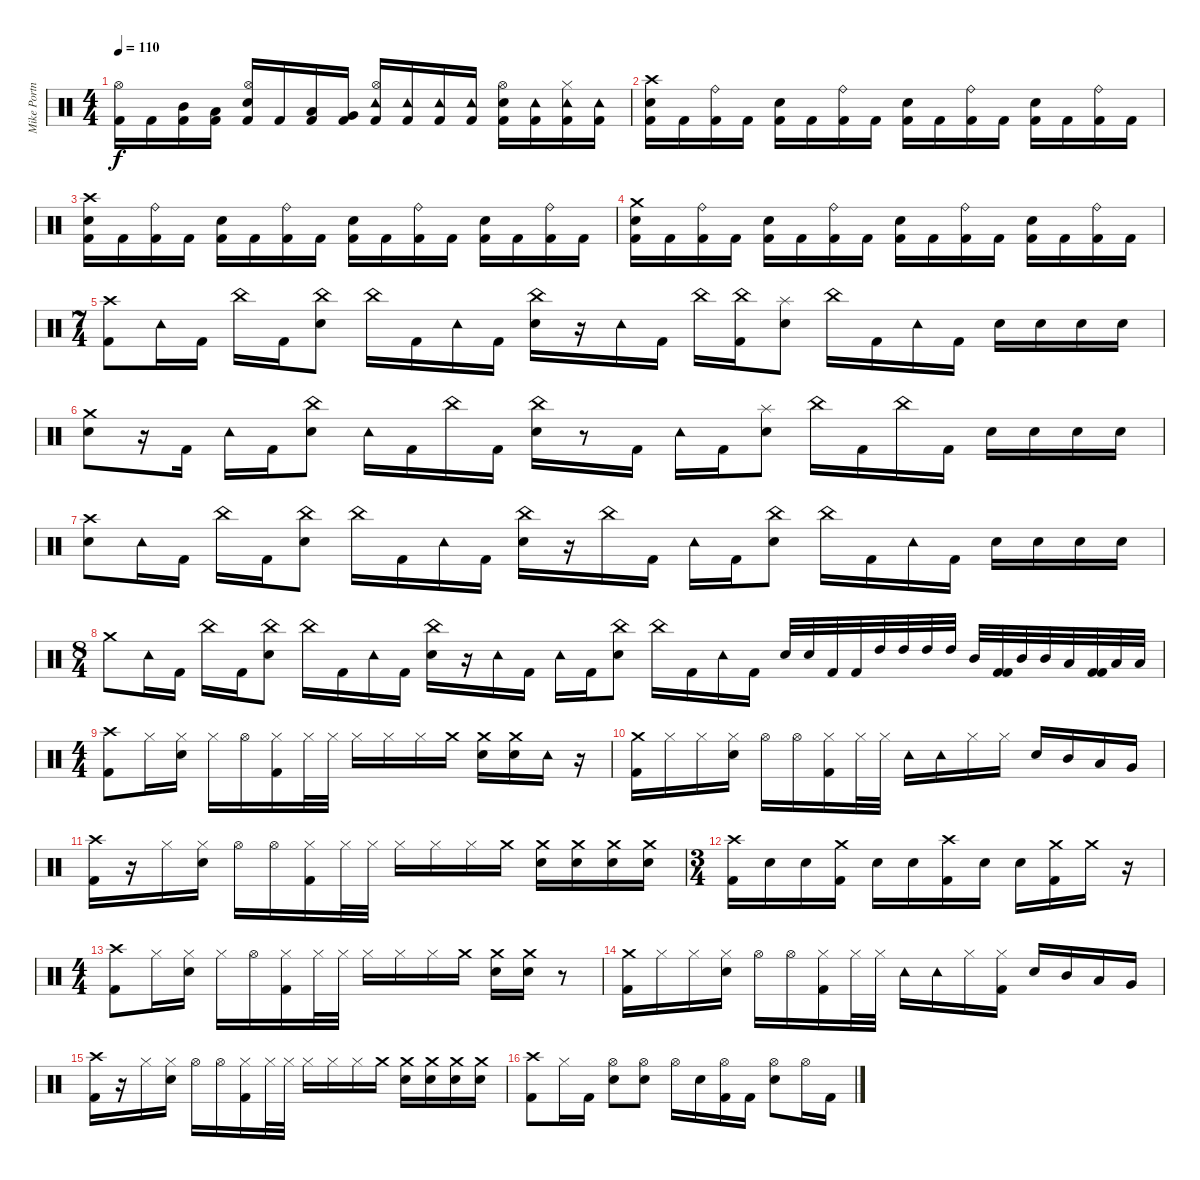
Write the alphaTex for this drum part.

\track ("Mike Portnoy - Drums" "Mike Portn") {instrument percussion}
\staff {score}
\articulation defaults
\ts (4 4)
\tempo 110
\clef neutral
\ks c
("Kick (hit) 2" "Hi-Hat (open)").16{dy f} "Kick (hit) 2".16 ("Kick (hit) 2" "Mid Tom (hit)").16 ("Kick (hit) 2" "Low Tom (hit)").16 ("Kick (hit) 2" "Electric Snare (hit)" "Hi-Hat (open)").16 "Kick (hit) 2".16 ("Kick (hit) 2" "Low Tom (hit)").16 ("Kick (hit) 2" "Very Low Tom (hit)").16 ("Kick (hit) 2" "Hi-Hat (open)" "Tambourine (hit)").16 ("Kick (hit) 2" "Tambourine (hit)").16 ("Kick (hit) 2" "Tambourine (hit)").16 ("Kick (hit) 2" "Tambourine (hit)").16 ("Kick (hit) 2" "Hi-Hat (open)" "Electric Snare (hit)").16 ("Kick (hit) 2" "Tambourine (hit)").16 ("Kick (hit) 2" "Hi-Hat (closed)" "Tambourine (hit)").16 ("Kick (hit) 2" "Tambourine (hit)").16 |
("Kick (hit) 2" "Electric Snare (hit)" "Crash high (hit)").16 "Kick (hit) 2".16 ("Kick (hit) 2" "Ride (bell)").16 "Kick (hit) 2".16 ("Kick (hit) 2" "Electric Snare (hit)").16 "Kick (hit) 2".16 ("Kick (hit) 2" "Ride (bell)").16 "Kick (hit) 2".16 ("Kick (hit) 2" "Electric Snare (hit)").16 "Kick (hit) 2".16 ("Kick (hit) 2" "Ride (bell)").16 "Kick (hit) 2".16 ("Kick (hit) 2" "Electric Snare (hit)").16 "Kick (hit) 2".16 ("Kick (hit) 2" "Ride (bell)").16 "Kick (hit) 2".16 |
("Crash high (hit)" "Electric Snare (hit)" "Kick (hit) 2").16 "Kick (hit) 2".16 ("Kick (hit) 2" "Ride (bell)").16 "Kick (hit) 2".16 ("Kick (hit) 2" "Electric Snare (hit)").16 "Kick (hit) 2".16 ("Kick (hit) 2" "Ride (bell)").16 "Kick (hit) 2".16 ("Kick (hit) 2" "Electric Snare (hit)").16 "Kick (hit) 2".16 ("Kick (hit) 2" "Ride (bell)").16 "Kick (hit) 2".16 ("Kick (hit) 2" "Electric Snare (hit)").16 "Kick (hit) 2".16 ("Kick (hit) 2" "Ride (bell)").16 "Kick (hit) 2".16 |
("Kick (hit) 2" "Electric Snare (hit)" "Crash medium (hit)").16 "Kick (hit) 2".16 ("Kick (hit) 2" "Ride (bell)").16 "Kick (hit) 2".16 ("Kick (hit) 2" "Electric Snare (hit)").16 "Kick (hit) 2".16 ("Kick (hit) 2" "Ride (bell)").16 "Kick (hit) 2".16 ("Kick (hit) 2" "Electric Snare (hit)").16 "Kick (hit) 2".16 ("Kick (hit) 2" "Ride (bell)").16 "Kick (hit) 2".16 ("Kick (hit) 2" "Electric Snare (hit)").16 "Kick (hit) 2".16 ("Kick (hit) 2" "Ride (bell)").16 "Kick (hit) 2".16 |
\ts (7 4)
("Crash high (hit)" "Kick (hit) 2").8 "Tambourine (hit)".16 "Kick (hit) 2".16 "China (hit)".16 "Kick (hit) 2".16 ("Electric Snare (hit)" "China (hit)").8 "China (hit)".16 "Kick (hit) 2".16 "Tambourine (hit)".16 "Kick (hit) 2".16 ("Electric Snare (hit)" "China (hit)").16 r.16 "Tambourine (hit)".16 "Kick (hit) 2".16 "China (hit)".16 ("Kick (hit) 2" "China (hit)").16 ("Electric Snare (hit)" "Splash (hit)").8 "China (hit)".16 "Kick (hit) 2".16 "Tambourine (hit)".16 "Kick (hit) 2".16 "Electric Snare (hit)".16 "Electric Snare (hit)".16 "Electric Snare (hit)".16 "Electric Snare (hit)".16 |
("Electric Snare (hit)" "Crash medium (hit)").8 r.16 "Kick (hit) 2".16 "Tambourine (hit)".16 "Kick (hit) 2".16 ("Electric Snare (hit)" "China (hit)").8 "Tambourine (hit)".16 "Kick (hit) 2".16 "China (hit)".16 "Kick (hit) 2".16 ("Electric Snare (hit)" "China (hit)").16 r.8 "Kick (hit) 2".16 "Tambourine (hit)".16 "Kick (hit) 2".16 ("Electric Snare (hit)" "Splash (hit)").8 "China (hit)".16 "Kick (hit) 2".16 "China (hit)".16 "Kick (hit) 2".16 "Electric Snare (hit)".16 "Electric Snare (hit)".16 "Electric Snare (hit)".16 "Electric Snare (hit)".16 |
("Crash high (hit)" "Electric Snare (hit)").8 "Tambourine (hit)".16 "Kick (hit) 2".16 "China (hit)".16 "Kick (hit) 2".16 ("Electric Snare (hit)" "China (hit)").8 "China (hit)".16 "Kick (hit) 2".16 "Tambourine (hit)".16 "Kick (hit) 2".16 ("Electric Snare (hit)" "China (hit)").16 r.16 "China (hit)".16 "Kick (hit) 2".16 "Tambourine (hit)".16 "Kick (hit) 2".16 ("Electric Snare (hit)" "China (hit)").8 "China (hit)".16 "Kick (hit) 2".16 "Tambourine (hit)".16 "Kick (hit) 2".16 "Electric Snare (hit)".16 "Electric Snare (hit)".16 "Electric Snare (hit)".16 "Electric Snare (hit)".16 |
\ts (8 4)
"Crash medium (hit)".8 "Tambourine (hit)".16 "Kick (hit) 2".16 "China (hit)".16 "Kick (hit) 2".16 ("Electric Snare (hit)" "China (hit)").8 "China (hit)".16 "Kick (hit) 2".16 "Tambourine (hit)".16 "Kick (hit) 2".16 ("Electric Snare (hit)" "China (hit)").16 r.16 "Tambourine (hit)".16 "Kick (hit) 2".16 "Tambourine (hit)".16 "Kick (hit) 2".16 ("China (hit)" "Electric Snare (hit)").8 "China (hit)".16 "Kick (hit) 2".16 "Tambourine (hit)".16 "Kick (hit) 2".16 "Electric Snare (hit)".32 "Electric Snare (hit)".32 "Kick (hit) 2".32 "Kick (hit) 2".32 "High Tom (hit)".32 "High Tom (hit)".32 "High Tom (hit)".32 "High Tom (hit)".32 "Mid Tom (hit)".32 ("Kick (hit) 2" "Kick (hit) 2").32 "Mid Tom (hit)".32 "Mid Tom (hit)".32 "Low Tom (hit)".32 ("Kick (hit) 2" "Kick (hit) 2").32 "Low Tom (hit)".32 "Low Tom (hit)".32 |
\ts (4 4)
("Crash high (hit)" "Kick (hit) 2").8 "Hi-Hat (closed)".16 ("Electric Snare (hit)" "Hi-Hat (closed)").16 "Hi-Hat (closed)".16 "Hi-Hat (open)".16 ("Kick (hit) 2" "Hi-Hat (closed)").16 "Hi-Hat (closed)".32 "Hi-Hat (closed)".32 "Hi-Hat (closed)".16 "Hi-Hat (closed)".16 "Hi-Hat (closed)".16 "Crash medium (hit)".16 ("Electric Snare (hit)" "Crash medium (hit)").16 ("Electric Snare (hit)" "Crash medium (hit)").16 "Tambourine (hit)".16 r.16 |
("Kick (hit) 2" "Crash medium (hit)").16 "Hi-Hat (closed)".16 "Hi-Hat (closed)".16 ("Electric Snare (hit)" "Hi-Hat (closed)").16 "Hi-Hat (open)".16 "Hi-Hat (open)".16 ("Kick (hit) 2" "Hi-Hat (closed)").16 "Hi-Hat (closed)".32 "Hi-Hat (closed)".32 "Tambourine (hit)".16 "Tambourine (hit)".16 "Hi-Hat (closed)".16 "Hi-Hat (closed)".16 "Electric Snare (hit)".16 "Mid Tom (hit)".16 "Low Tom (hit)".16 "Very Low Tom (hit)".16 |
("Kick (hit) 2" "Crash high (hit)").16 r.16 "Hi-Hat (closed)".16 ("Electric Snare (hit)" "Hi-Hat (closed)").16 "Hi-Hat (open)".16 "Hi-Hat (open)".16 ("Kick (hit) 2" "Hi-Hat (closed)").16 "Hi-Hat (closed)".32 "Hi-Hat (closed)".32 "Hi-Hat (closed)".16 "Hi-Hat (closed)".16 "Hi-Hat (closed)".16 "Crash medium (hit)".16 ("Electric Snare (hit)" "Crash medium (hit)").16 ("Electric Snare (hit)" "Crash medium (hit)").16 ("Crash medium (hit)" "Electric Snare (hit)").16 ("Electric Snare (hit)" "Crash medium (hit)").16 |
\ts (3 4)
("Kick (hit) 2" "Crash high (hit)").16 "Electric Snare (hit)".16 "Electric Snare (hit)".16 ("Kick (hit) 2" "Crash medium (hit)").16 "Electric Snare (hit)".16 "Electric Snare (hit)".16 ("Kick (hit) 2" "Crash high (hit)").16 "Electric Snare (hit)".16 "Electric Snare (hit)".16 ("Kick (hit) 2" "Crash medium (hit)").16 "Crash medium (hit)".16 r.16 |
\ts (4 4)
("Kick (hit) 2" "Crash high (hit)").8 "Hi-Hat (closed)".16 ("Electric Snare (hit)" "Hi-Hat (closed)").16 "Hi-Hat (closed)".16 "Hi-Hat (open)".16 ("Kick (hit) 2" "Hi-Hat (closed)").16 "Hi-Hat (closed)".32 "Hi-Hat (closed)".32 "Hi-Hat (closed)".16 "Hi-Hat (closed)".16 "Hi-Hat (closed)".16 "Crash medium (hit)".16 ("Electric Snare (hit)" "Crash medium (hit)").16 ("Electric Snare (hit)" "Crash medium (hit)").16 r.8 |
("Crash medium (hit)" "Kick (hit) 2").16 "Hi-Hat (closed)".16 "Hi-Hat (closed)".16 ("Electric Snare (hit)" "Hi-Hat (closed)").16 "Hi-Hat (open)".16 "Hi-Hat (open)".16 ("Kick (hit) 2" "Hi-Hat (closed)").16 "Hi-Hat (closed)".32 "Hi-Hat (closed)".32 "Tambourine (hit)".16 "Tambourine (hit)".16 "Hi-Hat (closed)".16 ("Kick (hit) 2" "Hi-Hat (closed)").16 "Electric Snare (hit)".16 "Mid Tom (hit)".16 "Low Tom (hit)".16 "Very Low Tom (hit)".16 |
("Crash high (hit)" "Kick (hit) 2").16 r.16 "Hi-Hat (closed)".16 ("Electric Snare (hit)" "Hi-Hat (closed)").16 "Hi-Hat (open)".16 "Hi-Hat (open)".16 ("Kick (hit) 2" "Hi-Hat (closed)").16 "Hi-Hat (closed)".32 "Hi-Hat (closed)".32 "Hi-Hat (closed)".16 "Hi-Hat (closed)".16 "Hi-Hat (closed)".16 "Crash medium (hit)".16 ("Electric Snare (hit)" "Crash medium (hit)").16 ("Electric Snare (hit)" "Crash medium (hit)").16 ("Crash medium (hit)" "Electric Snare (hit)").16 ("Electric Snare (hit)" "Crash medium (hit)").16 |
("Crash high (hit)" "Kick (hit) 2").8 "Hi-Hat (closed)".16 "Kick (hit) 2".16 ("Electric Snare (hit)" "Hi-Hat (open)").8 ("Hi-Hat (open)" "Electric Snare (hit)").8 "Hi-Hat (open)".16 "Electric Snare (hit)".16 ("Hi-Hat (open)" "Kick (hit) 2").16 "Kick (hit) 2".16 ("Electric Snare (hit)" "Hi-Hat (open)").8 "Hi-Hat (open)".16 "Kick (hit) 2".16
